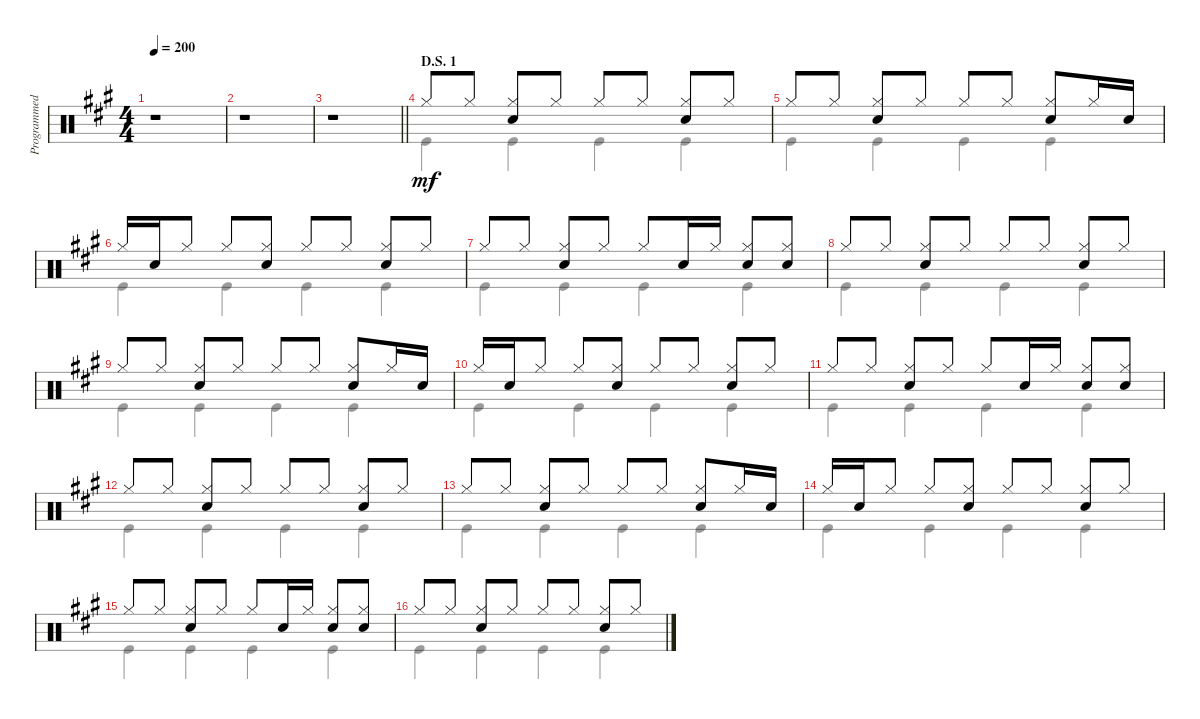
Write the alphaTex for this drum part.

\track ("Programmed Drums" "Programmed") {instrument percussion}
\staff {score}
\articulation defaults
\voice
\ts (4 4)
\tempo 200
\clef neutral
\ks a
r.1{dy mf} |
r.1 |
\barLineRight lightlight
r.1 |
\section ("" "D.S. 1")
"Hi-Hat (closed)".8 "Hi-Hat (closed)".8 ("Hi-Hat (closed)" "Snare (hit) 2").8 "Hi-Hat (closed)".8 "Hi-Hat (closed)".8 "Hi-Hat (closed)".8 ("Hi-Hat (closed)" "Snare (hit) 2").8 "Hi-Hat (closed)".8 |
"Hi-Hat (closed)".8 "Hi-Hat (closed)".8 ("Hi-Hat (closed)" "Snare (hit) 2").8 "Hi-Hat (closed)".8 "Hi-Hat (closed)".8 "Hi-Hat (closed)".8 ("Hi-Hat (closed)" "Snare (hit) 2").8 "Hi-Hat (closed)".16 "Snare (hit) 2".16 |
"Hi-Hat (closed)".16 "Snare (hit) 2".16 "Hi-Hat (closed)".8 "Hi-Hat (closed)".8 ("Hi-Hat (closed)" "Snare (hit) 2").8 "Hi-Hat (closed)".8 "Hi-Hat (closed)".8 ("Hi-Hat (closed)" "Snare (hit) 2").8 "Hi-Hat (closed)".8 |
"Hi-Hat (closed)".8 "Hi-Hat (closed)".8 ("Hi-Hat (closed)" "Snare (hit) 2").8 "Hi-Hat (closed)".8 "Hi-Hat (closed)".8 "Snare (hit) 2".16 "Hi-Hat (closed)".16 ("Hi-Hat (closed)" "Snare (hit) 2").8 ("Hi-Hat (closed)" "Snare (hit) 2").8 |
"Hi-Hat (closed)".8 "Hi-Hat (closed)".8 ("Hi-Hat (closed)" "Snare (hit) 2").8 "Hi-Hat (closed)".8 "Hi-Hat (closed)".8 "Hi-Hat (closed)".8 ("Hi-Hat (closed)" "Snare (hit) 2").8 "Hi-Hat (closed)".8 |
"Hi-Hat (closed)".8 "Hi-Hat (closed)".8 ("Hi-Hat (closed)" "Snare (hit) 2").8 "Hi-Hat (closed)".8 "Hi-Hat (closed)".8 "Hi-Hat (closed)".8 ("Hi-Hat (closed)" "Snare (hit) 2").8 "Hi-Hat (closed)".16 "Snare (hit) 2".16 |
"Hi-Hat (closed)".16 "Snare (hit) 2".16 "Hi-Hat (closed)".8 "Hi-Hat (closed)".8 ("Hi-Hat (closed)" "Snare (hit) 2").8 "Hi-Hat (closed)".8 "Hi-Hat (closed)".8 ("Hi-Hat (closed)" "Snare (hit) 2").8 "Hi-Hat (closed)".8 |
"Hi-Hat (closed)".8 "Hi-Hat (closed)".8 ("Hi-Hat (closed)" "Snare (hit) 2").8 "Hi-Hat (closed)".8 "Hi-Hat (closed)".8 "Snare (hit) 2".16 "Hi-Hat (closed)".16 ("Hi-Hat (closed)" "Snare (hit) 2").8 ("Hi-Hat (closed)" "Snare (hit) 2").8 |
"Hi-Hat (closed)".8 "Hi-Hat (closed)".8 ("Hi-Hat (closed)" "Snare (hit) 2").8 "Hi-Hat (closed)".8 "Hi-Hat (closed)".8 "Hi-Hat (closed)".8 ("Hi-Hat (closed)" "Snare (hit) 2").8 "Hi-Hat (closed)".8 |
"Hi-Hat (closed)".8 "Hi-Hat (closed)".8 ("Hi-Hat (closed)" "Snare (hit) 2").8 "Hi-Hat (closed)".8 "Hi-Hat (closed)".8 "Hi-Hat (closed)".8 ("Hi-Hat (closed)" "Snare (hit) 2").8 "Hi-Hat (closed)".16 "Snare (hit) 2".16 |
"Hi-Hat (closed)".16 "Snare (hit) 2".16 "Hi-Hat (closed)".8 "Hi-Hat (closed)".8 ("Hi-Hat (closed)" "Snare (hit) 2").8 "Hi-Hat (closed)".8 "Hi-Hat (closed)".8 ("Hi-Hat (closed)" "Snare (hit) 2").8 "Hi-Hat (closed)".8 |
"Hi-Hat (closed)".8 "Hi-Hat (closed)".8 ("Hi-Hat (closed)" "Snare (hit) 2").8 "Hi-Hat (closed)".8 "Hi-Hat (closed)".8 "Snare (hit) 2".16 "Hi-Hat (closed)".16 ("Hi-Hat (closed)" "Snare (hit) 2").8 ("Hi-Hat (closed)" "Snare (hit) 2").8 |
"Hi-Hat (closed)".8 "Hi-Hat (closed)".8 ("Hi-Hat (closed)" "Snare (hit) 2").8 "Hi-Hat (closed)".8 "Hi-Hat (closed)".8 "Hi-Hat (closed)".8 ("Hi-Hat (closed)" "Snare (hit) 2").8 "Hi-Hat (closed)".8
\voice
\clef neutral
\ottava regular
\simile none
\ks a
|
|
\barLineRight lightlight
|
"Kick (hit)".4 "Kick (hit)".4 "Kick (hit)".4 "Kick (hit)".4 |
"Kick (hit)".4 "Kick (hit)".4 "Kick (hit)".4 "Kick (hit)".4 |
"Kick (hit)".4 "Kick (hit)".4 "Kick (hit)".4 "Kick (hit)".4 |
"Kick (hit)".4 "Kick (hit)".4 "Kick (hit)".4 "Kick (hit)".4 |
"Kick (hit)".4 "Kick (hit)".4 "Kick (hit)".4 "Kick (hit)".4 |
"Kick (hit)".4 "Kick (hit)".4 "Kick (hit)".4 "Kick (hit)".4 |
"Kick (hit)".4 "Kick (hit)".4 "Kick (hit)".4 "Kick (hit)".4 |
"Kick (hit)".4 "Kick (hit)".4 "Kick (hit)".4 "Kick (hit)".4 |
"Kick (hit)".4 "Kick (hit)".4 "Kick (hit)".4 "Kick (hit)".4 |
"Kick (hit)".4 "Kick (hit)".4 "Kick (hit)".4 "Kick (hit)".4 |
"Kick (hit)".4 "Kick (hit)".4 "Kick (hit)".4 "Kick (hit)".4 |
"Kick (hit)".4 "Kick (hit)".4 "Kick (hit)".4 "Kick (hit)".4 |
"Kick (hit)".4 "Kick (hit)".4 "Kick (hit)".4 "Kick (hit)".4
